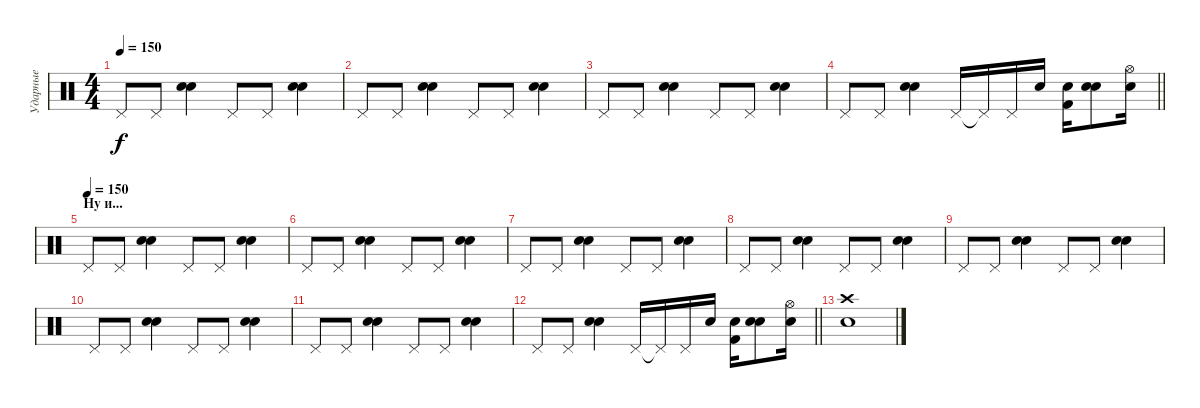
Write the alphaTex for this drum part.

\track ("Ударные" "Ударные") {instrument percussion}
\staff {score}
\articulation defaults
\ts (4 4)
\tempo 150
\clef neutral
\ks c "Pedal Hi-Hat (hit)".8{dy f} "Pedal Hi-Hat (hit)".8
("Electric Snare (hit)" "Snare (hit) 2").4 "Pedal Hi-Hat (hit)".8 "Pedal Hi-Hat (hit)".8 ("Electric Snare (hit)" "Snare (hit) 2").4 |
"Pedal Hi-Hat (hit)".8 "Pedal Hi-Hat (hit)".8 ("Electric Snare (hit)" "Snare (hit) 2").4 "Pedal Hi-Hat (hit)".8 "Pedal Hi-Hat (hit)".8 ("Electric Snare (hit)" "Snare (hit) 2").4 |
"Pedal Hi-Hat (hit)".8 "Pedal Hi-Hat (hit)".8 ("Electric Snare (hit)" "Snare (hit) 2").4 "Pedal Hi-Hat (hit)".8 "Pedal Hi-Hat (hit)".8 ("Electric Snare (hit)" "Snare (hit) 2").4 |
\barLineRight lightlight "Pedal Hi-Hat (hit)".8 "Pedal Hi-Hat (hit)".8
("Electric Snare (hit)" "Snare (hit) 2").4 "Pedal Hi-Hat (hit)".16 "Pedal Hi-Hat (hit)"{t}.16 "Pedal Hi-Hat (hit)".16 "Electric Snare (hit)".16 ("Electric Snare (hit)" "Kick (hit) 2").16 ("Electric Snare (hit)" "Snare (hit) 2").8 ("Hi-Hat (open)" "Electric Snare (hit)").16 |
\section ("" "Ну и...")
\tempo (150)
"Pedal Hi-Hat (hit)".8 "Pedal Hi-Hat (hit)".8 ("Electric Snare (hit)" "Snare (hit) 2").4 "Pedal Hi-Hat (hit)".8 "Pedal Hi-Hat (hit)".8 ("Electric Snare (hit)" "Snare (hit) 2").4 |
"Pedal Hi-Hat (hit)".8 "Pedal Hi-Hat (hit)".8 ("Electric Snare (hit)" "Snare (hit) 2").4 "Pedal Hi-Hat (hit)".8 "Pedal Hi-Hat (hit)".8 ("Electric Snare (hit)" "Snare (hit) 2").4 |
"Pedal Hi-Hat (hit)".8 "Pedal Hi-Hat (hit)".8 ("Electric Snare (hit)" "Snare (hit) 2").4 "Pedal Hi-Hat (hit)".8 "Pedal Hi-Hat (hit)".8 ("Electric Snare (hit)" "Snare (hit) 2").4 |
"Pedal Hi-Hat (hit)".8 "Pedal Hi-Hat (hit)".8 ("Electric Snare (hit)" "Snare (hit) 2").4 "Pedal Hi-Hat (hit)".8 "Pedal Hi-Hat (hit)".8 ("Electric Snare (hit)" "Snare (hit) 2").4 |
"Pedal Hi-Hat (hit)".8 "Pedal Hi-Hat (hit)".8 ("Electric Snare (hit)" "Snare (hit) 2").4 "Pedal Hi-Hat (hit)".8 "Pedal Hi-Hat (hit)".8 ("Electric Snare (hit)" "Snare (hit) 2").4 |
"Pedal Hi-Hat (hit)".8 "Pedal Hi-Hat (hit)".8 ("Electric Snare (hit)" "Snare (hit) 2").4 "Pedal Hi-Hat (hit)".8 "Pedal Hi-Hat (hit)".8 ("Electric Snare (hit)" "Snare (hit) 2").4 |
"Pedal Hi-Hat (hit)".8 "Pedal Hi-Hat (hit)".8 ("Electric Snare (hit)" "Snare (hit) 2").4 "Pedal Hi-Hat (hit)".8 "Pedal Hi-Hat (hit)".8 ("Electric Snare (hit)" "Snare (hit) 2").4 |
\barLineRight lightlight "Pedal Hi-Hat (hit)".8 "Pedal Hi-Hat (hit)".8
("Electric Snare (hit)" "Snare (hit) 2").4 "Pedal Hi-Hat (hit)".16 "Pedal Hi-Hat (hit)"{t}.16 "Pedal Hi-Hat (hit)".16 "Electric Snare (hit)".16 ("Electric Snare (hit)" "Kick (hit) 2").16 ("Electric Snare (hit)" "Snare (hit) 2").8 ("Hi-Hat (open)" "Electric Snare (hit)").16 |
("Electric Snare (hit)" "Crash high (hit)").1
